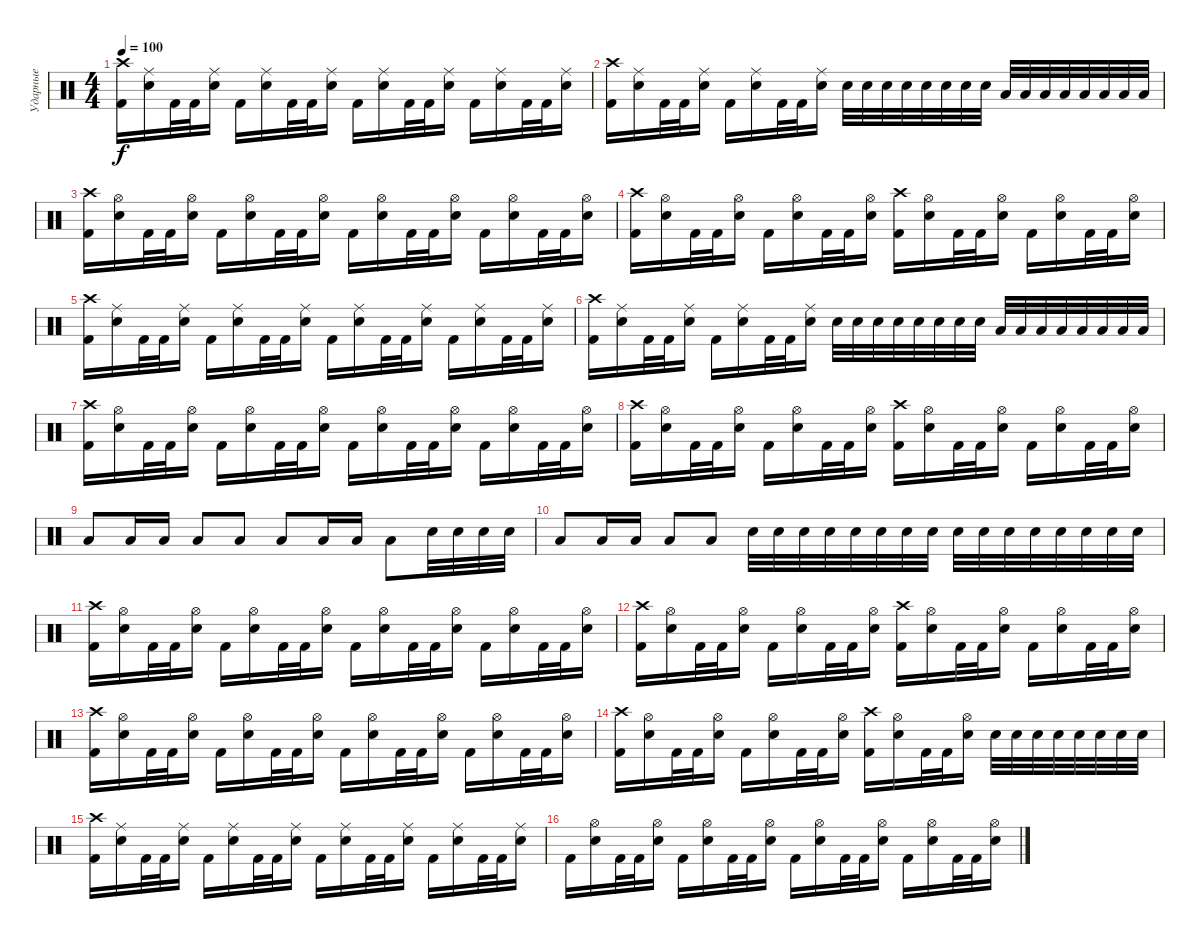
\track ("Ударные" "Ударные") {instrument percussion}
\staff {score}
\articulation defaults
\ts (4 4)
\tempo 100
\clef neutral
\ks c
("Kick (hit) 2" "Crash high (hit)").16{dy f} ("Electric Snare (hit)" "Ride (middle)").16 "Kick (hit) 2".32 "Kick (hit) 2".32 ("Electric Snare (hit)" "Ride (middle)").16 "Kick (hit) 2".16 ("Electric Snare (hit)" "Ride (middle)").16 "Kick (hit) 2".32 "Kick (hit) 2".32 ("Electric Snare (hit)" "Ride (middle)").16 "Kick (hit) 2".16 ("Electric Snare (hit)" "Ride (middle)").16 "Kick (hit) 2".32 "Kick (hit) 2".32 ("Electric Snare (hit)" "Ride (middle)").16 "Kick (hit) 2".16 ("Electric Snare (hit)" "Ride (middle)").16 "Kick (hit) 2".32 "Kick (hit) 2".32 ("Electric Snare (hit)" "Ride (middle)").16 |
("Kick (hit) 2" "Crash high (hit)").16 ("Electric Snare (hit)" "Ride (middle)").16 "Kick (hit) 2".32 "Kick (hit) 2".32 ("Electric Snare (hit)" "Ride (middle)").16 "Kick (hit) 2".16 ("Electric Snare (hit)" "Ride (middle)").16 "Kick (hit) 2".32 "Kick (hit) 2".32 ("Electric Snare (hit)" "Ride (middle)").16 "Electric Snare (hit)".32 "Electric Snare (hit)".32 "Electric Snare (hit)".32 "Electric Snare (hit)".32 "Electric Snare (hit)".32 "Electric Snare (hit)".32 "Electric Snare (hit)".32 "Electric Snare (hit)".32 "Low Tom (hit)".32 "Low Tom (hit)".32 "Low Tom (hit)".32 "Low Tom (hit)".32 "Low Tom (hit)".32 "Low Tom (hit)".32 "Low Tom (hit)".32 "Low Tom (hit)".32 |
("Kick (hit) 2" "Crash high (hit)").16 ("Electric Snare (hit)" "Hi-Hat (open)").16 "Kick (hit) 2".32 "Kick (hit) 2".32 ("Electric Snare (hit)" "Hi-Hat (open)").16 "Kick (hit) 2".16 ("Electric Snare (hit)" "Hi-Hat (open)").16 "Kick (hit) 2".32 "Kick (hit) 2".32 ("Electric Snare (hit)" "Hi-Hat (open)").16 "Kick (hit) 2".16 ("Electric Snare (hit)" "Hi-Hat (open)").16 "Kick (hit) 2".32 "Kick (hit) 2".32 ("Electric Snare (hit)" "Hi-Hat (open)").16 "Kick (hit) 2".16 ("Electric Snare (hit)" "Hi-Hat (open)").16 "Kick (hit) 2".32 "Kick (hit) 2".32 ("Electric Snare (hit)" "Hi-Hat (open)").16 |
("Kick (hit) 2" "Crash high (hit)").16 ("Electric Snare (hit)" "Hi-Hat (open)").16 "Kick (hit) 2".32 "Kick (hit) 2".32 ("Electric Snare (hit)" "Hi-Hat (open)").16 "Kick (hit) 2".16 ("Electric Snare (hit)" "Hi-Hat (open)").16 "Kick (hit) 2".32 "Kick (hit) 2".32 ("Electric Snare (hit)" "Hi-Hat (open)").16 ("Kick (hit) 2" "Crash high (hit)").16 ("Electric Snare (hit)" "Hi-Hat (open)").16 "Kick (hit) 2".32 "Kick (hit) 2".32 ("Electric Snare (hit)" "Hi-Hat (open)").16 "Kick (hit) 2".16 ("Electric Snare (hit)" "Hi-Hat (open)").16 "Kick (hit) 2".32 "Kick (hit) 2".32 ("Electric Snare (hit)" "Hi-Hat (open)").16 |
("Kick (hit) 2" "Crash high (hit)").16 ("Electric Snare (hit)" "Ride (middle)").16 "Kick (hit) 2".32 "Kick (hit) 2".32 ("Electric Snare (hit)" "Ride (middle)").16 "Kick (hit) 2".16 ("Electric Snare (hit)" "Ride (middle)").16 "Kick (hit) 2".32 "Kick (hit) 2".32 ("Electric Snare (hit)" "Ride (middle)").16 "Kick (hit) 2".16 ("Electric Snare (hit)" "Ride (middle)").16 "Kick (hit) 2".32 "Kick (hit) 2".32 ("Electric Snare (hit)" "Ride (middle)").16 "Kick (hit) 2".16 ("Electric Snare (hit)" "Ride (middle)").16 "Kick (hit) 2".32 "Kick (hit) 2".32 ("Electric Snare (hit)" "Ride (middle)").16 |
("Kick (hit) 2" "Crash high (hit)").16 ("Electric Snare (hit)" "Ride (middle)").16 "Kick (hit) 2".32 "Kick (hit) 2".32 ("Electric Snare (hit)" "Ride (middle)").16 "Kick (hit) 2".16 ("Electric Snare (hit)" "Ride (middle)").16 "Kick (hit) 2".32 "Kick (hit) 2".32 ("Electric Snare (hit)" "Ride (middle)").16 "Electric Snare (hit)".32 "Electric Snare (hit)".32 "Electric Snare (hit)".32 "Electric Snare (hit)".32 "Electric Snare (hit)".32 "Electric Snare (hit)".32 "Electric Snare (hit)".32 "Electric Snare (hit)".32 "Low Tom (hit)".32 "Low Tom (hit)".32 "Low Tom (hit)".32 "Low Tom (hit)".32 "Low Tom (hit)".32 "Low Tom (hit)".32 "Low Tom (hit)".32 "Low Tom (hit)".32 |
("Kick (hit) 2" "Crash high (hit)").16 ("Electric Snare (hit)" "Hi-Hat (open)").16 "Kick (hit) 2".32 "Kick (hit) 2".32 ("Electric Snare (hit)" "Hi-Hat (open)").16 "Kick (hit) 2".16 ("Electric Snare (hit)" "Hi-Hat (open)").16 "Kick (hit) 2".32 "Kick (hit) 2".32 ("Electric Snare (hit)" "Hi-Hat (open)").16 "Kick (hit) 2".16 ("Electric Snare (hit)" "Hi-Hat (open)").16 "Kick (hit) 2".32 "Kick (hit) 2".32 ("Electric Snare (hit)" "Hi-Hat (open)").16 "Kick (hit) 2".16 ("Electric Snare (hit)" "Hi-Hat (open)").16 "Kick (hit) 2".32 "Kick (hit) 2".32 ("Electric Snare (hit)" "Hi-Hat (open)").16 |
("Kick (hit) 2" "Crash high (hit)").16 ("Electric Snare (hit)" "Hi-Hat (open)").16 "Kick (hit) 2".32 "Kick (hit) 2".32 ("Electric Snare (hit)" "Hi-Hat (open)").16 "Kick (hit) 2".16 ("Electric Snare (hit)" "Hi-Hat (open)").16 "Kick (hit) 2".32 "Kick (hit) 2".32 ("Electric Snare (hit)" "Hi-Hat (open)").16 ("Kick (hit) 2" "Crash high (hit)").16 ("Electric Snare (hit)" "Hi-Hat (open)").16 "Kick (hit) 2".32 "Kick (hit) 2".32 ("Electric Snare (hit)" "Hi-Hat (open)").16 "Kick (hit) 2".16 ("Electric Snare (hit)" "Hi-Hat (open)").16 "Kick (hit) 2".32 "Kick (hit) 2".32 ("Electric Snare (hit)" "Hi-Hat (open)").16 |
"Low Tom (hit)".8 "Low Tom (hit)".16 "Low Tom (hit)".16 "Low Tom (hit)".8 "Low Tom (hit)".8 "Low Tom (hit)".8 "Low Tom (hit)".16 "Low Tom (hit)".16 "Low Tom (hit)".8 "Electric Snare (hit)".32 "Electric Snare (hit)".32 "Electric Snare (hit)".32 "Electric Snare (hit)".32 |
"Low Tom (hit)".8 "Low Tom (hit)".16 "Low Tom (hit)".16 "Low Tom (hit)".8 "Low Tom (hit)".8 "Electric Snare (hit)".32 "Electric Snare (hit)".32 "Electric Snare (hit)".32 "Electric Snare (hit)".32 "Electric Snare (hit)".32 "Electric Snare (hit)".32 "Electric Snare (hit)".32 "Electric Snare (hit)".32 "Electric Snare (hit)".32 "Electric Snare (hit)".32 "Electric Snare (hit)".32 "Electric Snare (hit)".32 "Electric Snare (hit)".32 "Electric Snare (hit)".32 "Electric Snare (hit)".32 "Electric Snare (hit)".32 |
("Kick (hit) 2" "Crash high (hit)").16 ("Electric Snare (hit)" "Hi-Hat (open)").16 "Kick (hit) 2".32 "Kick (hit) 2".32 ("Electric Snare (hit)" "Hi-Hat (open)").16 "Kick (hit) 2".16 ("Electric Snare (hit)" "Hi-Hat (open)").16 "Kick (hit) 2".32 "Kick (hit) 2".32 ("Electric Snare (hit)" "Hi-Hat (open)").16 "Kick (hit) 2".16 ("Electric Snare (hit)" "Hi-Hat (open)").16 "Kick (hit) 2".32 "Kick (hit) 2".32 ("Electric Snare (hit)" "Hi-Hat (open)").16 "Kick (hit) 2".16 ("Electric Snare (hit)" "Hi-Hat (open)").16 "Kick (hit) 2".32 "Kick (hit) 2".32 ("Electric Snare (hit)" "Hi-Hat (open)").16 |
("Kick (hit) 2" "Crash high (hit)").16 ("Electric Snare (hit)" "Hi-Hat (open)").16 "Kick (hit) 2".32 "Kick (hit) 2".32 ("Electric Snare (hit)" "Hi-Hat (open)").16 "Kick (hit) 2".16 ("Electric Snare (hit)" "Hi-Hat (open)").16 "Kick (hit) 2".32 "Kick (hit) 2".32 ("Electric Snare (hit)" "Hi-Hat (open)").16 ("Kick (hit) 2" "Crash high (hit)").16 ("Electric Snare (hit)" "Hi-Hat (open)").16 "Kick (hit) 2".32 "Kick (hit) 2".32 ("Electric Snare (hit)" "Hi-Hat (open)").16 "Kick (hit) 2".16 ("Electric Snare (hit)" "Hi-Hat (open)").16 "Kick (hit) 2".32 "Kick (hit) 2".32 ("Electric Snare (hit)" "Hi-Hat (open)").16 |
("Kick (hit) 2" "Crash high (hit)").16 ("Electric Snare (hit)" "Hi-Hat (open)").16 "Kick (hit) 2".32 "Kick (hit) 2".32 ("Electric Snare (hit)" "Hi-Hat (open)").16 "Kick (hit) 2".16 ("Electric Snare (hit)" "Hi-Hat (open)").16 "Kick (hit) 2".32 "Kick (hit) 2".32 ("Electric Snare (hit)" "Hi-Hat (open)").16 "Kick (hit) 2".16 ("Electric Snare (hit)" "Hi-Hat (open)").16 "Kick (hit) 2".32 "Kick (hit) 2".32 ("Electric Snare (hit)" "Hi-Hat (open)").16 "Kick (hit) 2".16 ("Electric Snare (hit)" "Hi-Hat (open)").16 "Kick (hit) 2".32 "Kick (hit) 2".32 ("Electric Snare (hit)" "Hi-Hat (open)").16 |
("Kick (hit) 2" "Crash high (hit)").16 ("Electric Snare (hit)" "Hi-Hat (open)").16 "Kick (hit) 2".32 "Kick (hit) 2".32 ("Electric Snare (hit)" "Hi-Hat (open)").16 "Kick (hit) 2".16 ("Electric Snare (hit)" "Hi-Hat (open)").16 "Kick (hit) 2".32 "Kick (hit) 2".32 ("Electric Snare (hit)" "Hi-Hat (open)").16 ("Kick (hit) 2" "Crash high (hit)").16 ("Electric Snare (hit)" "Hi-Hat (open)").16 "Kick (hit) 2".32 "Kick (hit) 2".32 ("Electric Snare (hit)" "Hi-Hat (open)").16 "Electric Snare (hit)".32 "Electric Snare (hit)".32 "Electric Snare (hit)".32 "Electric Snare (hit)".32 "Electric Snare (hit)".32 "Electric Snare (hit)".32 "Electric Snare (hit)".32 "Electric Snare (hit)".32 |
("Kick (hit) 2" "Crash high (hit)").16 ("Electric Snare (hit)" "Ride (middle)").16 "Kick (hit) 2".32 "Kick (hit) 2".32 ("Electric Snare (hit)" "Ride (middle)").16 "Kick (hit) 2".16 ("Electric Snare (hit)" "Ride (middle)").16 "Kick (hit) 2".32 "Kick (hit) 2".32 ("Electric Snare (hit)" "Ride (middle)").16 "Kick (hit) 2".16 ("Electric Snare (hit)" "Ride (middle)").16 "Kick (hit) 2".32 "Kick (hit) 2".32 ("Electric Snare (hit)" "Ride (middle)").16 "Kick (hit) 2".16 ("Electric Snare (hit)" "Ride (middle)").16 "Kick (hit) 2".32 "Kick (hit) 2".32 ("Electric Snare (hit)" "Ride (middle)").16 |
"Kick (hit) 2".16 ("Electric Snare (hit)" "Hi-Hat (open)").16 "Kick (hit) 2".32 "Kick (hit) 2".32 ("Electric Snare (hit)" "Hi-Hat (open)").16 "Kick (hit) 2".16 ("Electric Snare (hit)" "Hi-Hat (open)").16 "Kick (hit) 2".32 "Kick (hit) 2".32 ("Electric Snare (hit)" "Hi-Hat (open)").16 "Kick (hit) 2".16 ("Electric Snare (hit)" "Hi-Hat (open)").16 "Kick (hit) 2".32 "Kick (hit) 2".32 ("Electric Snare (hit)" "Hi-Hat (open)").16 "Kick (hit) 2".16 ("Electric Snare (hit)" "Hi-Hat (open)").16 "Kick (hit) 2".32 "Kick (hit) 2".32 ("Electric Snare (hit)" "Hi-Hat (open)").16
